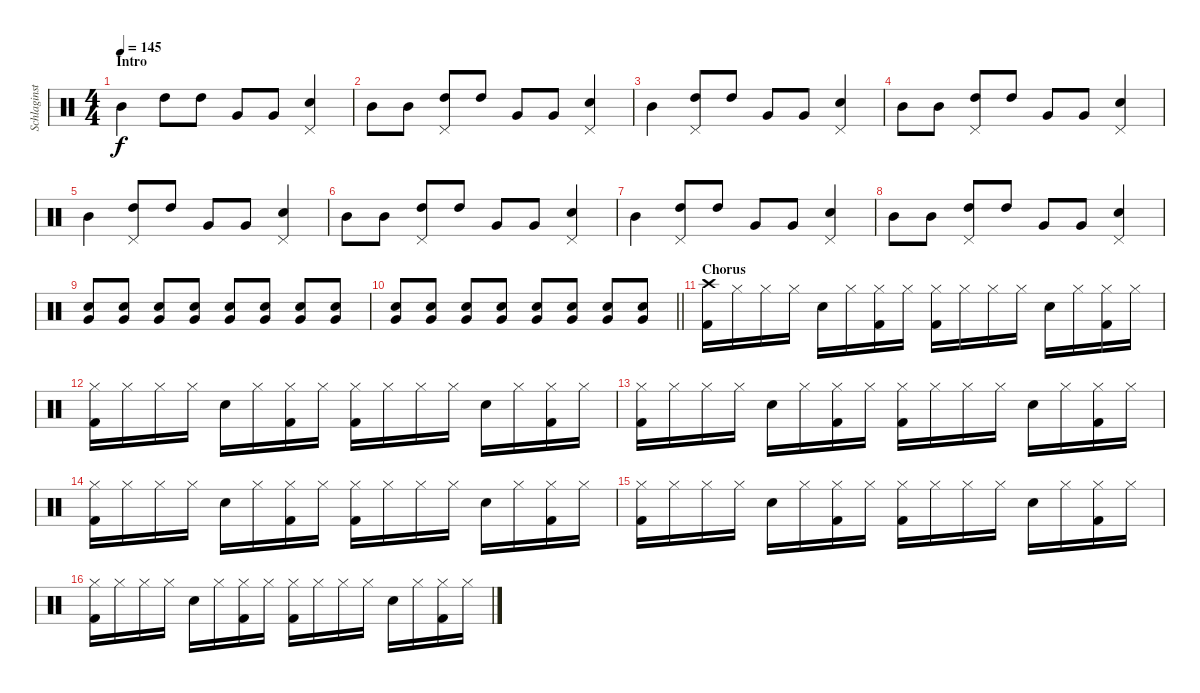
\track ("Schlaginstrumente - Auswahl" "Schlaginst") {instrument percussion}
\staff {score}
\articulation defaults
\ts (4 4)
\section ("" "Intro")
\tempo 145
\clef neutral
\ks c "Mid Tom (hit)".4{dy f} "High Tom (hit)".8 "High Tom (hit)".8 "Very Low Tom (hit)".8 "Very Low Tom (hit)".8
("Pedal Hi-Hat (hit)" "Electric Snare (hit)").4 |
"Mid Tom (hit)".8 "Mid Tom (hit)".8 ("High Tom (hit)" "Pedal Hi-Hat (hit)").8 "High Tom (hit)".8 "Very Low Tom (hit)".8 "Very Low Tom (hit)".8 ("Pedal Hi-Hat (hit)" "Electric Snare (hit)").4 |
"Mid Tom (hit)".4 ("High Tom (hit)" "Pedal Hi-Hat (hit)").8 "High Tom (hit)".8 "Very Low Tom (hit)".8 "Very Low Tom (hit)".8 ("Pedal Hi-Hat (hit)" "Electric Snare (hit)").4 |
"Mid Tom (hit)".8 "Mid Tom (hit)".8 ("High Tom (hit)" "Pedal Hi-Hat (hit)").8 "High Tom (hit)".8 "Very Low Tom (hit)".8 "Very Low Tom (hit)".8 ("Pedal Hi-Hat (hit)" "Electric Snare (hit)").4 |
"Mid Tom (hit)".4 ("High Tom (hit)" "Pedal Hi-Hat (hit)").8 "High Tom (hit)".8 "Very Low Tom (hit)".8 "Very Low Tom (hit)".8 ("Pedal Hi-Hat (hit)" "Electric Snare (hit)").4 |
"Mid Tom (hit)".8 "Mid Tom (hit)".8 ("High Tom (hit)" "Pedal Hi-Hat (hit)").8 "High Tom (hit)".8 "Very Low Tom (hit)".8 "Very Low Tom (hit)".8 ("Pedal Hi-Hat (hit)" "Electric Snare (hit)").4 |
"Mid Tom (hit)".4 ("High Tom (hit)" "Pedal Hi-Hat (hit)").8 "High Tom (hit)".8 "Very Low Tom (hit)".8 "Very Low Tom (hit)".8 ("Pedal Hi-Hat (hit)" "Electric Snare (hit)").4 |
"Mid Tom (hit)".8 "Mid Tom (hit)".8 ("High Tom (hit)" "Pedal Hi-Hat (hit)").8 "High Tom (hit)".8 "Very Low Tom (hit)".8 "Very Low Tom (hit)".8 ("Pedal Hi-Hat (hit)" "Electric Snare (hit)").4 |
("Very Low Tom (hit)" "Electric Snare (hit)").8 ("Very Low Tom (hit)" "Electric Snare (hit)").8 ("Very Low Tom (hit)" "Electric Snare (hit)").8 ("Very Low Tom (hit)" "Electric Snare (hit)").8 ("Very Low Tom (hit)" "Electric Snare (hit)").8 ("Very Low Tom (hit)" "Electric Snare (hit)").8 ("Very Low Tom (hit)" "Electric Snare (hit)").8 ("Very Low Tom (hit)" "Electric Snare (hit)").8 |
\barLineRight lightlight
("Very Low Tom (hit)" "Electric Snare (hit)").8 ("Very Low Tom (hit)" "Electric Snare (hit)").8 ("Very Low Tom (hit)" "Electric Snare (hit)").8 ("Very Low Tom (hit)" "Electric Snare (hit)").8 ("Very Low Tom (hit)" "Electric Snare (hit)").8 ("Very Low Tom (hit)" "Electric Snare (hit)").8 ("Very Low Tom (hit)" "Electric Snare (hit)").8 ("Very Low Tom (hit)" "Electric Snare (hit)").8 |
\section ("" "Chorus")
("Crash high (hit)" "Kick (hit) 2").16 "Hi-Hat (closed)".16 "Hi-Hat (closed)".16 "Hi-Hat (closed)".16 "Electric Snare (hit)".16 "Hi-Hat (closed)".16 ("Hi-Hat (closed)" "Kick (hit) 2").16 "Hi-Hat (closed)".16 ("Hi-Hat (closed)" "Kick (hit) 2").16 "Hi-Hat (closed)".16 "Hi-Hat (closed)".16 "Hi-Hat (closed)".16 "Electric Snare (hit)".16 "Hi-Hat (closed)".16 ("Hi-Hat (closed)" "Kick (hit) 2").16 "Hi-Hat (closed)".16 |
("Hi-Hat (closed)" "Kick (hit) 2").16 "Hi-Hat (closed)".16 "Hi-Hat (closed)".16 "Hi-Hat (closed)".16 "Electric Snare (hit)".16 "Hi-Hat (closed)".16 ("Hi-Hat (closed)" "Kick (hit) 2").16 "Hi-Hat (closed)".16 ("Hi-Hat (closed)" "Kick (hit) 2").16 "Hi-Hat (closed)".16 "Hi-Hat (closed)".16 "Hi-Hat (closed)".16 "Electric Snare (hit)".16 "Hi-Hat (closed)".16 ("Hi-Hat (closed)" "Kick (hit) 2").16 "Hi-Hat (closed)".16 |
("Hi-Hat (closed)" "Kick (hit) 2").16 "Hi-Hat (closed)".16 "Hi-Hat (closed)".16 "Hi-Hat (closed)".16 "Electric Snare (hit)".16 "Hi-Hat (closed)".16 ("Hi-Hat (closed)" "Kick (hit) 2").16 "Hi-Hat (closed)".16 ("Hi-Hat (closed)" "Kick (hit) 2").16 "Hi-Hat (closed)".16 "Hi-Hat (closed)".16 "Hi-Hat (closed)".16 "Electric Snare (hit)".16 "Hi-Hat (closed)".16 ("Hi-Hat (closed)" "Kick (hit) 2").16 "Hi-Hat (closed)".16 |
("Hi-Hat (closed)" "Kick (hit) 2").16 "Hi-Hat (closed)".16 "Hi-Hat (closed)".16 "Hi-Hat (closed)".16 "Electric Snare (hit)".16 "Hi-Hat (closed)".16 ("Hi-Hat (closed)" "Kick (hit) 2").16 "Hi-Hat (closed)".16 ("Hi-Hat (closed)" "Kick (hit) 2").16 "Hi-Hat (closed)".16 "Hi-Hat (closed)".16 "Hi-Hat (closed)".16 "Electric Snare (hit)".16 "Hi-Hat (closed)".16 ("Hi-Hat (closed)" "Kick (hit) 2").16 "Hi-Hat (closed)".16 |
("Hi-Hat (closed)" "Kick (hit) 2").16 "Hi-Hat (closed)".16 "Hi-Hat (closed)".16 "Hi-Hat (closed)".16 "Electric Snare (hit)".16 "Hi-Hat (closed)".16 ("Hi-Hat (closed)" "Kick (hit) 2").16 "Hi-Hat (closed)".16 ("Hi-Hat (closed)" "Kick (hit) 2").16 "Hi-Hat (closed)".16 "Hi-Hat (closed)".16 "Hi-Hat (closed)".16 "Electric Snare (hit)".16 "Hi-Hat (closed)".16 ("Hi-Hat (closed)" "Kick (hit) 2").16 "Hi-Hat (closed)".16 |
("Hi-Hat (closed)" "Kick (hit) 2").16 "Hi-Hat (closed)".16 "Hi-Hat (closed)".16 "Hi-Hat (closed)".16 "Electric Snare (hit)".16 "Hi-Hat (closed)".16 ("Hi-Hat (closed)" "Kick (hit) 2").16 "Hi-Hat (closed)".16 ("Hi-Hat (closed)" "Kick (hit) 2").16 "Hi-Hat (closed)".16 "Hi-Hat (closed)".16 "Hi-Hat (closed)".16 "Electric Snare (hit)".16 "Hi-Hat (closed)".16 ("Hi-Hat (closed)" "Kick (hit) 2").16 "Hi-Hat (closed)".16
